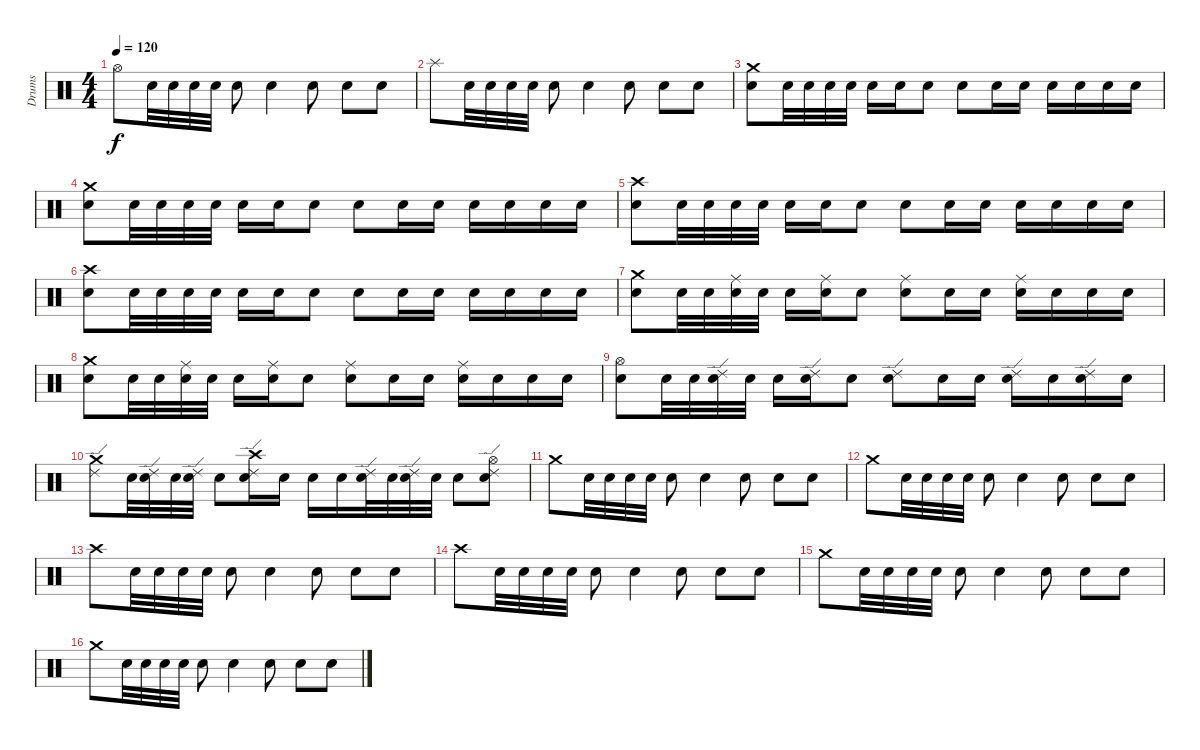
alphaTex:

\track ("Drums" "Drums") {instrument percussion}
\staff {score}
\articulation defaults
\ts (4 4)
\tempo 120
\clef neutral
\ks c "Hi-Hat (open)".8{dy f} "Electric Snare (hit)".32 "Electric Snare (hit)".32 "Electric Snare (hit)".32 "Electric Snare (hit)".32 "Electric Snare (hit)".8 "Electric Snare (hit)".4 "Electric Snare (hit)".8 "Electric Snare (hit)".8 "Electric Snare (hit)".8
|
"Splash (hit)".8 "Electric Snare (hit)".32 "Electric Snare (hit)".32 "Electric Snare (hit)".32 "Electric Snare (hit)".32 "Electric Snare (hit)".8 "Electric Snare (hit)".4 "Electric Snare (hit)".8 "Electric Snare (hit)".8 "Electric Snare (hit)".8 |
("Crash medium (hit)" "Snare (hit) 2").8 "Electric Snare (hit)".32 "Electric Snare (hit)".32 "Electric Snare (hit)".32 "Electric Snare (hit)".32 "Snare (hit) 2".16 "Electric Snare (hit)".16 "Snare (hit) 2".8 "Electric Snare (hit)".8 "Snare (hit) 2".16 "Electric Snare (hit)".16 "Snare (hit) 2".16 "Electric Snare (hit)".16 "Snare (hit) 2".16 "Electric Snare (hit)".16 |
("Crash medium (hit)" "Snare (hit) 2").8 "Electric Snare (hit)".32 "Electric Snare (hit)".32 "Electric Snare (hit)".32 "Electric Snare (hit)".32 "Snare (hit) 2".16 "Electric Snare (hit)".16 "Snare (hit) 2".8 "Electric Snare (hit)".8 "Snare (hit) 2".16 "Electric Snare (hit)".16 "Snare (hit) 2".16 "Electric Snare (hit)".16 "Snare (hit) 2".16 "Electric Snare (hit)".16 |
("Crash high (hit)" "Snare (hit) 2").8 "Electric Snare (hit)".32 "Electric Snare (hit)".32 "Electric Snare (hit)".32 "Electric Snare (hit)".32 "Snare (hit) 2".16 "Electric Snare (hit)".16 "Snare (hit) 2".8 "Electric Snare (hit)".8 "Snare (hit) 2".16 "Electric Snare (hit)".16 "Snare (hit) 2".16 "Electric Snare (hit)".16 "Snare (hit) 2".16 "Electric Snare (hit)".16 |
("Crash high (hit)" "Snare (hit) 2").8 "Electric Snare (hit)".32 "Electric Snare (hit)".32 "Electric Snare (hit)".32 "Electric Snare (hit)".32 "Snare (hit) 2".16 "Electric Snare (hit)".16 "Snare (hit) 2".8 "Electric Snare (hit)".8 "Snare (hit) 2".16 "Electric Snare (hit)".16 "Snare (hit) 2".16 "Electric Snare (hit)".16 "Snare (hit) 2".16 "Electric Snare (hit)".16 |
("Crash medium (hit)" "Snare (hit) 2").8 "Electric Snare (hit)".32 "Electric Snare (hit)".32 ("Ride (middle)" "Electric Snare (hit)").32 "Electric Snare (hit)".32 "Snare (hit) 2".16 ("Ride (middle)" "Electric Snare (hit)").16 "Snare (hit) 2".8 ("Ride (middle)" "Electric Snare (hit)").8 "Snare (hit) 2".16 "Electric Snare (hit)".16 ("Ride (middle)" "Snare (hit) 2").16 "Electric Snare (hit)".16 "Snare (hit) 2".16 "Electric Snare (hit)".16 |
("Crash medium (hit)" "Snare (hit) 2").8 "Electric Snare (hit)".32 "Electric Snare (hit)".32 ("Ride (middle)" "Electric Snare (hit)").32 "Electric Snare (hit)".32 "Snare (hit) 2".16 ("Ride (middle)" "Electric Snare (hit)").16 "Snare (hit) 2".8 ("Ride (middle)" "Electric Snare (hit)").8 "Snare (hit) 2".16 "Electric Snare (hit)".16 ("Ride (middle)" "Snare (hit) 2").16 "Electric Snare (hit)".16 "Snare (hit) 2".16 "Electric Snare (hit)".16 |
("Hi-Hat (open)" "Snare (hit) 2").8 "Electric Snare (hit)".32 "Electric Snare (hit)".32 ("Ride (edge) 2" "Electric Snare (hit)").32 "Electric Snare (hit)".32 "Snare (hit) 2".16 ("Ride (edge) 2" "Electric Snare (hit)").16 "Snare (hit) 2".8 ("Ride (edge) 2" "Electric Snare (hit)").8 "Snare (hit) 2".16 "Electric Snare (hit)".16 ("Ride (edge) 2" "Snare (hit) 2").16 "Electric Snare (hit)".16 ("Ride (edge) 2" "Snare (hit) 2").16 "Electric Snare (hit)".16 |
("Crash medium (hit)" "Ride (edge) 2").8 "Electric Snare (hit)".32 ("Electric Snare (hit)" "Ride (edge) 2").32 "Electric Snare (hit)".32 ("Electric Snare (hit)" "Ride (edge) 2").32 "Electric Snare (hit)".8 ("Crash high (hit)" "Electric Snare (hit)" "Ride (edge) 2").16 "Electric Snare (hit)".16 "Snare (hit) 2".16 "Electric Snare (hit)".16 ("Electric Snare (hit)" "Ride (edge) 2").32 "Electric Snare (hit)".32 ("Electric Snare (hit)" "Ride (edge) 2").32 "Electric Snare (hit)".32 "Electric Snare (hit)".8 ("Hi-Hat (open)" "Electric Snare (hit)" "Ride (edge) 2").8 |
"Crash medium (hit)".8 "Electric Snare (hit)".32 "Electric Snare (hit)".32 "Electric Snare (hit)".32 "Electric Snare (hit)".32 "Electric Snare (hit)".8 "Electric Snare (hit)".4 "Electric Snare (hit)".8 "Electric Snare (hit)".8 "Electric Snare (hit)".8 |
"Crash medium (hit)".8 "Electric Snare (hit)".32 "Electric Snare (hit)".32 "Electric Snare (hit)".32 "Electric Snare (hit)".32 "Electric Snare (hit)".8 "Electric Snare (hit)".4 "Electric Snare (hit)".8 "Electric Snare (hit)".8 "Electric Snare (hit)".8 |
"Crash high (hit)".8 "Electric Snare (hit)".32 "Electric Snare (hit)".32 "Electric Snare (hit)".32 "Electric Snare (hit)".32 "Electric Snare (hit)".8 "Electric Snare (hit)".4 "Electric Snare (hit)".8 "Electric Snare (hit)".8 "Electric Snare (hit)".8 |
"Crash high (hit)".8 "Electric Snare (hit)".32 "Electric Snare (hit)".32 "Electric Snare (hit)".32 "Electric Snare (hit)".32 "Electric Snare (hit)".8 "Electric Snare (hit)".4 "Electric Snare (hit)".8 "Electric Snare (hit)".8 "Electric Snare (hit)".8 |
"Crash medium (hit)".8 "Electric Snare (hit)".32 "Electric Snare (hit)".32 "Electric Snare (hit)".32 "Electric Snare (hit)".32 "Electric Snare (hit)".8 "Electric Snare (hit)".4 "Electric Snare (hit)".8 "Electric Snare (hit)".8 "Electric Snare (hit)".8 |
"Crash medium (hit)".8 "Electric Snare (hit)".32 "Electric Snare (hit)".32 "Electric Snare (hit)".32 "Electric Snare (hit)".32 "Electric Snare (hit)".8 "Electric Snare (hit)".4 "Electric Snare (hit)".8 "Electric Snare (hit)".8 "Electric Snare (hit)".8
